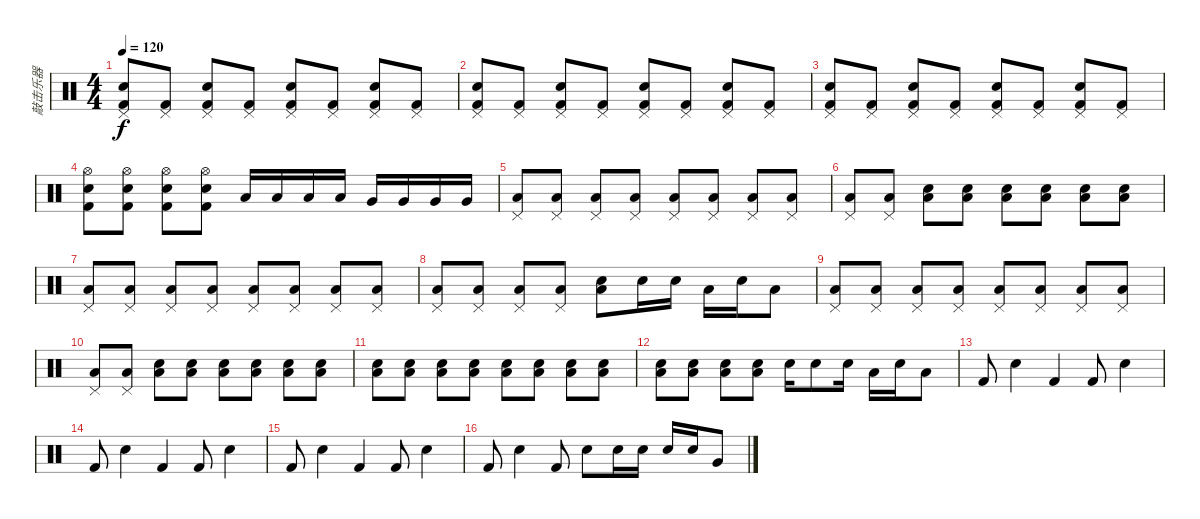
\track ("敲击乐器" "敲击乐器") {instrument percussion}
\staff {score}
\articulation defaults
\ts (4 4)
\tempo 120
\clef neutral
\ks c
("Pedal Hi-Hat (hit)" "Snare (hit) 2" "Kick (hit) 2").8{dy f} ("Pedal Hi-Hat (hit)" "Kick (hit) 2").8 ("Pedal Hi-Hat (hit)" "Snare (hit) 2" "Kick (hit) 2").8 ("Pedal Hi-Hat (hit)" "Kick (hit) 2").8 ("Pedal Hi-Hat (hit)" "Snare (hit) 2" "Kick (hit) 2").8 ("Pedal Hi-Hat (hit)" "Kick (hit) 2").8 ("Pedal Hi-Hat (hit)" "Snare (hit) 2" "Kick (hit) 2").8 ("Pedal Hi-Hat (hit)" "Kick (hit) 2").8 |
("Pedal Hi-Hat (hit)" "Snare (hit) 2" "Kick (hit) 2").8 ("Pedal Hi-Hat (hit)" "Kick (hit) 2").8 ("Pedal Hi-Hat (hit)" "Snare (hit) 2" "Kick (hit) 2").8 ("Pedal Hi-Hat (hit)" "Kick (hit) 2").8 ("Pedal Hi-Hat (hit)" "Snare (hit) 2" "Kick (hit) 2").8 ("Pedal Hi-Hat (hit)" "Kick (hit) 2").8 ("Pedal Hi-Hat (hit)" "Snare (hit) 2" "Kick (hit) 2").8 ("Pedal Hi-Hat (hit)" "Kick (hit) 2").8 |
("Pedal Hi-Hat (hit)" "Snare (hit) 2" "Kick (hit) 2").8 ("Pedal Hi-Hat (hit)" "Kick (hit) 2").8 ("Pedal Hi-Hat (hit)" "Snare (hit) 2" "Kick (hit) 2").8 ("Pedal Hi-Hat (hit)" "Kick (hit) 2").8 ("Pedal Hi-Hat (hit)" "Snare (hit) 2" "Kick (hit) 2").8 ("Pedal Hi-Hat (hit)" "Kick (hit) 2").8 ("Pedal Hi-Hat (hit)" "Snare (hit) 2" "Kick (hit) 2").8 ("Pedal Hi-Hat (hit)" "Kick (hit) 2").8 |
("Hi-Hat (open)" "Snare (hit) 2" "Kick (hit) 2").8 ("Hi-Hat (open)" "Snare (hit) 2" "Kick (hit) 2").8 ("Hi-Hat (open)" "Snare (hit) 2" "Kick (hit) 2").8 ("Hi-Hat (open)" "Snare (hit) 2" "Kick (hit) 2").8 "Low Tom (hit)".16 "Low Tom (hit)".16 "Low Tom (hit)".16 "Low Tom (hit)".16 "Very Low Tom (hit)".16 "Very Low Tom (hit)".16 "Very Low Tom (hit)".16 "Very Low Tom (hit)".16 |
("Pedal Hi-Hat (hit)" "Low Floor Tom (hit)").8 ("Pedal Hi-Hat (hit)" "Low Floor Tom (hit)").8 ("Pedal Hi-Hat (hit)" "Low Floor Tom (hit)").8 ("Pedal Hi-Hat (hit)" "Low Floor Tom (hit)").8 ("Pedal Hi-Hat (hit)" "Low Floor Tom (hit)").8 ("Pedal Hi-Hat (hit)" "Low Floor Tom (hit)").8 ("Pedal Hi-Hat (hit)" "Low Floor Tom (hit)").8 ("Pedal Hi-Hat (hit)" "Low Floor Tom (hit)").8 |
("Pedal Hi-Hat (hit)" "Low Floor Tom (hit)").8 ("Pedal Hi-Hat (hit)" "Low Floor Tom (hit)").8 ("Snare (hit) 2" "Low Floor Tom (hit)").8 ("Snare (hit) 2" "Low Floor Tom (hit)").8 ("Snare (hit) 2" "Low Floor Tom (hit)").8 ("Snare (hit) 2" "Low Floor Tom (hit)").8 ("Snare (hit) 2" "Low Floor Tom (hit)").8 ("Snare (hit) 2" "Low Floor Tom (hit)").8 |
("Pedal Hi-Hat (hit)" "Low Floor Tom (hit)").8 ("Pedal Hi-Hat (hit)" "Low Floor Tom (hit)").8 ("Pedal Hi-Hat (hit)" "Low Floor Tom (hit)").8 ("Pedal Hi-Hat (hit)" "Low Floor Tom (hit)").8 ("Pedal Hi-Hat (hit)" "Low Floor Tom (hit)").8 ("Pedal Hi-Hat (hit)" "Low Floor Tom (hit)").8 ("Pedal Hi-Hat (hit)" "Low Floor Tom (hit)").8 ("Pedal Hi-Hat (hit)" "Low Floor Tom (hit)").8 |
("Pedal Hi-Hat (hit)" "Low Floor Tom (hit)").8 ("Pedal Hi-Hat (hit)" "Low Floor Tom (hit)").8 ("Pedal Hi-Hat (hit)" "Low Floor Tom (hit)").8 ("Pedal Hi-Hat (hit)" "Low Floor Tom (hit)").8 ("Snare (hit) 2" "Low Floor Tom (hit)").8 "Snare (hit) 2".16 "Snare (hit) 2".16 "Low Floor Tom (hit)".16 "Snare (hit) 2".16 "Low Floor Tom (hit)".8 |
("Pedal Hi-Hat (hit)" "Low Floor Tom (hit)").8 ("Pedal Hi-Hat (hit)" "Low Floor Tom (hit)").8 ("Pedal Hi-Hat (hit)" "Low Floor Tom (hit)").8 ("Pedal Hi-Hat (hit)" "Low Floor Tom (hit)").8 ("Pedal Hi-Hat (hit)" "Low Floor Tom (hit)").8 ("Pedal Hi-Hat (hit)" "Low Floor Tom (hit)").8 ("Pedal Hi-Hat (hit)" "Low Floor Tom (hit)").8 ("Pedal Hi-Hat (hit)" "Low Floor Tom (hit)").8 |
("Pedal Hi-Hat (hit)" "Low Floor Tom (hit)").8 ("Pedal Hi-Hat (hit)" "Low Floor Tom (hit)").8 ("Snare (hit) 2" "Low Floor Tom (hit)").8 ("Snare (hit) 2" "Low Floor Tom (hit)").8 ("Snare (hit) 2" "Low Floor Tom (hit)").8 ("Snare (hit) 2" "Low Floor Tom (hit)").8 ("Snare (hit) 2" "Low Floor Tom (hit)").8 ("Snare (hit) 2" "Low Floor Tom (hit)").8 |
("Snare (hit) 2" "Low Floor Tom (hit)").8 ("Snare (hit) 2" "Low Floor Tom (hit)").8 ("Snare (hit) 2" "Low Floor Tom (hit)").8 ("Snare (hit) 2" "Low Floor Tom (hit)").8 ("Snare (hit) 2" "Low Floor Tom (hit)").8 ("Snare (hit) 2" "Low Floor Tom (hit)").8 ("Snare (hit) 2" "Low Floor Tom (hit)").8 ("Snare (hit) 2" "Low Floor Tom (hit)").8 |
("Snare (hit) 2" "Low Floor Tom (hit)").8 ("Snare (hit) 2" "Low Floor Tom (hit)").8 ("Snare (hit) 2" "Low Floor Tom (hit)").8 ("Snare (hit) 2" "Low Floor Tom (hit)").8 "Snare (hit) 2".16 "Snare (hit) 2".8 "Snare (hit) 2".16 "Low Floor Tom (hit)".16 "Snare (hit) 2".16 "Low Floor Tom (hit)".8 |
"Kick (hit) 2".8 "Snare (hit) 2".4 "Kick (hit) 2".4 "Kick (hit) 2".8 "Snare (hit) 2".4 |
"Kick (hit) 2".8 "Snare (hit) 2".4 "Kick (hit) 2".4 "Kick (hit) 2".8 "Snare (hit) 2".4 |
"Kick (hit) 2".8 "Snare (hit) 2".4 "Kick (hit) 2".4 "Kick (hit) 2".8 "Snare (hit) 2".4 |
"Kick (hit) 2".8 "Snare (hit) 2".4 "Kick (hit) 2".8 "Snare (hit) 2".8 "Snare (hit) 2".16 "Snare (hit) 2".16 "Snare (hit) 2".16 "Snare (hit) 2".16 "Very Low Tom (hit)".8
